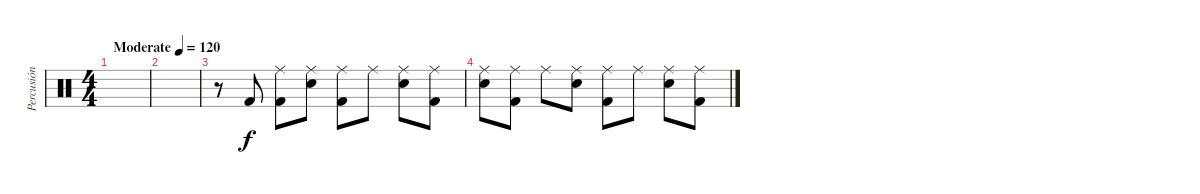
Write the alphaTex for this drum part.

\track ("Percusión" "Percusión") {instrument percussion}
\staff {score}
\articulation defaults
\ts (4 4)
\tempo (120 "Moderate")
\clef neutral
\ks c
|
|
r.8 "Kick (hit) 2".8 ("Ride (middle)" "Kick (hit) 2").8 ("Ride (middle)" "Snare (hit) 2").8 ("Ride (middle)" "Kick (hit) 2").8 "Ride (middle)".8 ("Ride (middle)" "Snare (hit) 2").8 ("Ride (middle)" "Kick (hit) 2").8 |
("Ride (middle)" "Snare (hit) 2").8 ("Ride (middle)" "Kick (hit) 2").8 "Ride (middle)".8 ("Ride (middle)" "Snare (hit) 2").8 ("Ride (middle)" "Kick (hit) 2").8 "Ride (middle)".8 ("Ride (middle)" "Snare (hit) 2").8 ("Ride (middle)" "Kick (hit) 2").8
